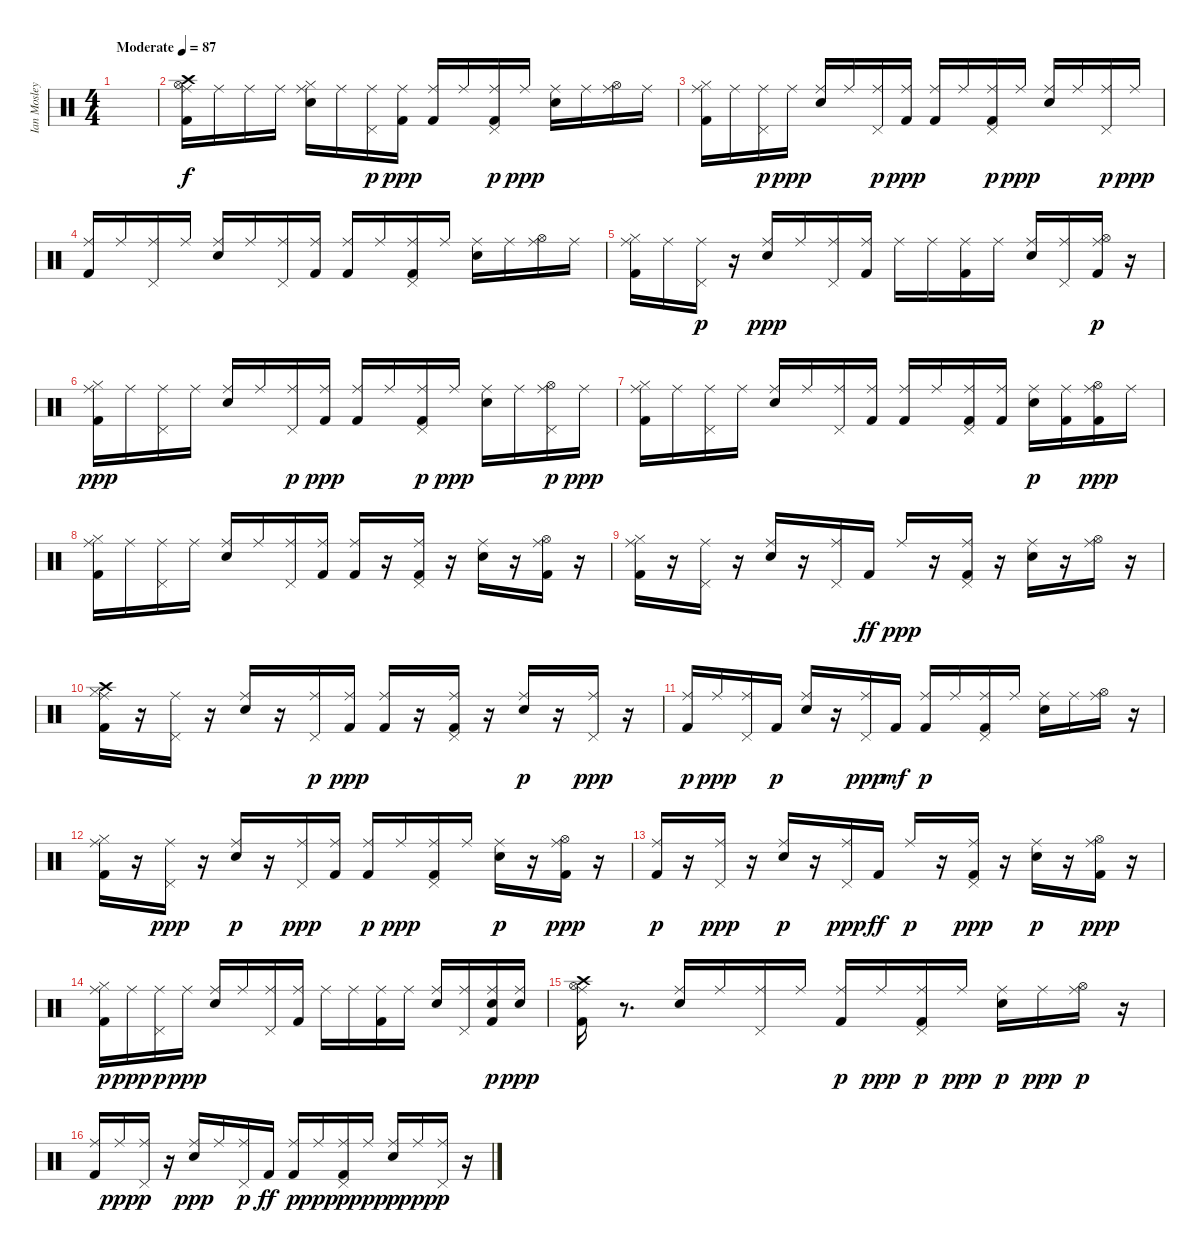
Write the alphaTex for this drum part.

\track ("Ian Mosley" "Ian Mosley") {instrument percussion}
\staff {score}
\articulation defaults
\ts (4 4)
\tempo (87 "Moderate")
\clef neutral
\ks c
|
("Kick (hit) 2" "Hi-Hat (open)" "Crash high (hit)" "Ride (middle)").16 "Ride (middle)".16 "Ride (middle)".16 "Ride (middle)".16 ("Snare (hit) 2" "Hi-Hat (closed)" "Ride (middle)").16 "Ride (middle)".16 ("Pedal Hi-Hat (hit)" "Ride (middle)").16{dy p} ("Kick (hit) 2" "Ride (middle)").16{dy ppp} ("Kick (hit) 2" "Ride (middle)").16 "Ride (middle)".16 ("Kick (hit) 2" "Pedal Hi-Hat (hit)" "Ride (middle)").16{dy p} "Ride (middle)".16{dy ppp} ("Snare (hit) 2" "Ride (middle)").16 "Ride (middle)".16 ("Hi-Hat (open)" "Ride (middle)").16 "Ride (middle)".16 |
("Kick (hit) 2" "Hi-Hat (closed)" "Ride (middle)").16 "Ride (middle)".16 ("Pedal Hi-Hat (hit)" "Ride (middle)").16{dy p} "Ride (middle)".16{dy ppp} ("Snare (hit) 2" "Ride (middle)").16 "Ride (middle)".16 ("Pedal Hi-Hat (hit)" "Ride (middle)").16{dy p} ("Kick (hit) 2" "Ride (middle)").16{dy ppp} ("Kick (hit) 2" "Ride (middle)").16 "Ride (middle)".16 ("Kick (hit) 2" "Pedal Hi-Hat (hit)" "Ride (middle)").16{dy p} "Ride (middle)".16{dy ppp} ("Snare (hit) 2" "Ride (middle)").16 "Ride (middle)".16 ("Pedal Hi-Hat (hit)" "Ride (middle)").16{dy p} "Ride (middle)".16{dy ppp} |
("Kick (hit) 2" "Ride (middle)").16 "Ride (middle)".16 ("Pedal Hi-Hat (hit)" "Ride (middle)").16 "Ride (middle)".16 ("Snare (hit) 2" "Ride (middle)").16 "Ride (middle)".16 ("Pedal Hi-Hat (hit)" "Ride (middle)").16 ("Kick (hit) 2" "Ride (middle)").16 ("Kick (hit) 2" "Ride (middle)").16 "Ride (middle)".16 ("Pedal Hi-Hat (hit)" "Kick (hit) 2" "Ride (middle)").16 "Ride (middle)".16 ("Snare (hit) 2" "Ride (middle)").16 "Ride (middle)".16 ("Hi-Hat (open)" "Ride (middle)").16 "Ride (middle)".16 |
("Hi-Hat (closed)" "Kick (hit) 2" "Ride (middle)").16 "Ride (middle)".16 ("Pedal Hi-Hat (hit)" "Ride (middle)").16{dy p} r.16 ("Snare (hit) 2" "Ride (middle)").16{dy ppp} "Ride (middle)".16 ("Pedal Hi-Hat (hit)" "Ride (middle)").16 ("Kick (hit) 2" "Ride (middle)").16 "Ride (middle)".16 "Ride (middle)".16 ("Kick (hit) 2" "Ride (middle)").16 "Ride (middle)".16 ("Snare (hit) 2" "Ride (middle)").16 ("Pedal Hi-Hat (hit)" "Ride (middle)").16 ("Hi-Hat (open)" "Kick (hit) 2" "Ride (middle)").16{dy p} r.16 |
("Kick (hit) 2" "Hi-Hat (closed)" "Ride (middle)").16{dy ppp} "Ride (middle)".16 ("Pedal Hi-Hat (hit)" "Ride (middle)").16 "Ride (middle)".16 ("Snare (hit) 2" "Ride (middle)").16 "Ride (middle)".16 ("Pedal Hi-Hat (hit)" "Ride (middle)").16{dy p} ("Kick (hit) 2" "Ride (middle)").16{dy ppp} ("Kick (hit) 2" "Ride (middle)").16 "Ride (middle)".16 ("Pedal Hi-Hat (hit)" "Kick (hit) 2" "Ride (middle)").16{dy p} "Ride (middle)".16{dy ppp} ("Snare (hit) 2" "Ride (middle)").16 "Ride (middle)".16 ("Pedal Hi-Hat (hit)" "Hi-Hat (open)" "Ride (middle)").16{dy p} "Ride (middle)".16{dy ppp} |
("Kick (hit) 2" "Hi-Hat (closed)" "Ride (middle)").16 "Ride (middle)".16 ("Pedal Hi-Hat (hit)" "Ride (middle)").16 "Ride (middle)".16 ("Snare (hit) 2" "Ride (middle)").16 "Ride (middle)".16 ("Pedal Hi-Hat (hit)" "Ride (middle)").16 ("Kick (hit) 2" "Ride (middle)").16 ("Kick (hit) 2" "Ride (middle)").16 "Ride (middle)".16 ("Kick (hit) 2" "Pedal Hi-Hat (hit)" "Ride (middle)").16 ("Kick (hit) 2" "Ride (middle)").16 ("Snare (hit) 2" "Ride (middle)").16{dy p} ("Kick (hit) 2" "Ride (middle)").16 ("Kick (hit) 2" "Hi-Hat (open)" "Ride (middle)").16{dy ppp} "Ride (middle)".16 |
("Kick (hit) 2" "Hi-Hat (closed)" "Ride (middle)").16 "Ride (middle)".16 ("Pedal Hi-Hat (hit)" "Ride (middle)").16 "Ride (middle)".16 ("Snare (hit) 2" "Ride (middle)").16 "Ride (middle)".16 ("Pedal Hi-Hat (hit)" "Ride (middle)").16 ("Kick (hit) 2" "Ride (middle)").16 ("Kick (hit) 2" "Ride (middle)").16 r.16 ("Kick (hit) 2" "Pedal Hi-Hat (hit)" "Ride (middle)").16 r.16 ("Snare (hit) 2" "Ride (middle)").16 r.16 ("Kick (hit) 2" "Hi-Hat (open)" "Ride (middle)").16 r.16 |
("Hi-Hat (closed)" "Kick (hit) 2" "Ride (middle)").16 r.16 ("Pedal Hi-Hat (hit)" "Ride (middle)").16 r.16 ("Snare (hit) 2" "Ride (middle)").16 r.16 ("Pedal Hi-Hat (hit)" "Ride (middle)").16 "Kick (hit) 2".16{dy ff} "Ride (middle)".16{dy ppp} r.16 ("Pedal Hi-Hat (hit)" "Kick (hit) 2" "Ride (middle)").16 r.16 ("Snare (hit) 2" "Ride (middle)").16 r.16 ("Hi-Hat (open)" "Ride (middle)").16 r.16 |
("Kick (hit) 2" "Hi-Hat (closed)" "Crash high (hit)" "Ride (middle)").16 r.16 ("Pedal Hi-Hat (hit)" "Ride (middle)").16 r.16 ("Snare (hit) 2" "Ride (middle)").16 r.16 ("Pedal Hi-Hat (hit)" "Ride (middle)").16{dy p} ("Kick (hit) 2" "Ride (middle)").16{dy ppp} ("Kick (hit) 2" "Ride (middle)").16 r.16 ("Pedal Hi-Hat (hit)" "Kick (hit) 2" "Ride (middle)").16 r.16 ("Snare (hit) 2" "Ride (middle)").16{dy p} r.16 ("Pedal Hi-Hat (hit)" "Ride (middle)").16{dy ppp} r.16 |
("Kick (hit) 2" "Ride (middle)").16{dy p} "Ride (middle)".16{dy ppp} ("Pedal Hi-Hat (hit)" "Ride (middle)").16 "Kick (hit) 2".16{dy p} ("Snare (hit) 2" "Ride (middle)").16 r.16 ("Pedal Hi-Hat (hit)" "Ride (middle)").16{dy ppp} "Kick (hit) 2".16{dy mf} ("Kick (hit) 2" "Ride (middle)").16{dy p} "Ride (middle)".16 ("Kick (hit) 2" "Pedal Hi-Hat (hit)" "Ride (middle)").16 "Ride (middle)".16 ("Snare (hit) 2" "Ride (middle)").16 "Ride (middle)".16 ("Hi-Hat (open)" "Ride (middle)").16 r.16 |
("Kick (hit) 2" "Hi-Hat (closed)" "Ride (middle)").16 r.16 ("Pedal Hi-Hat (hit)" "Ride (middle)").16{dy ppp} r.16 ("Snare (hit) 2" "Ride (middle)").16{dy p} r.16 ("Pedal Hi-Hat (hit)" "Ride (middle)").16{dy ppp} ("Kick (hit) 2" "Ride (middle)").16 ("Kick (hit) 2" "Ride (middle)").16{dy p} "Ride (middle)".16{dy ppp} ("Kick (hit) 2" "Pedal Hi-Hat (hit)" "Ride (middle)").16 "Ride (middle)".16 ("Snare (hit) 2" "Ride (middle)").16{dy p} r.16 ("Hi-Hat (open)" "Kick (hit) 2" "Ride (middle)").16{dy ppp} r.16 |
("Kick (hit) 2" "Ride (middle)").16{dy p} r.16 ("Pedal Hi-Hat (hit)" "Ride (middle)").16{dy ppp} r.16 ("Snare (hit) 2" "Ride (middle)").16{dy p} r.16 ("Pedal Hi-Hat (hit)" "Ride (middle)").16{dy ppp} "Kick (hit) 2".16{dy ff} "Ride (middle)".16{dy p} r.16 ("Kick (hit) 2" "Pedal Hi-Hat (hit)" "Ride (middle)").16{dy ppp} r.16 ("Snare (hit) 2" "Ride (middle)").16{dy p} r.16 ("Kick (hit) 2" "Hi-Hat (open)" "Ride (middle)").16{dy ppp} r.16 |
("Hi-Hat (closed)" "Kick (hit) 2" "Ride (middle)").16{dy p} "Ride (middle)".16{dy ppp} ("Pedal Hi-Hat (hit)" "Ride (middle)").16{dy p} "Ride (middle)".16{dy ppp} ("Snare (hit) 2" "Ride (middle)").16 "Ride (middle)".16 ("Pedal Hi-Hat (hit)" "Ride (middle)").16 ("Kick (hit) 2" "Ride (middle)").16 "Ride (middle)".16 "Ride (middle)".16 ("Kick (hit) 2" "Ride (middle)").16 "Ride (middle)".16 ("Snare (hit) 2" "Ride (middle)").16 ("Pedal Hi-Hat (hit)" "Ride (middle)").16 ("Kick (hit) 2" "Snare (hit) 2" "Ride (middle)").16{dy p} ("Snare (hit) 2" "Ride (middle)").16{dy ppp} |
("Kick (hit) 2" "Hi-Hat (open)" "Crash high (hit)" "Ride (middle)").16 r.8{d} ("Snare (hit) 2" "Ride (middle)").16 "Ride (middle)".16 ("Pedal Hi-Hat (hit)" "Ride (middle)").16 "Ride (middle)".16 ("Kick (hit) 2" "Ride (middle)").16{dy p} "Ride (middle)".16{dy ppp} ("Kick (hit) 2" "Pedal Hi-Hat (hit)" "Ride (middle)").16{dy p} "Ride (middle)".16{dy ppp} ("Snare (hit) 2" "Ride (middle)").16{dy p} "Ride (middle)".16{dy ppp} ("Hi-Hat (open)" "Ride (middle)").16{dy p} r.16 |
("Kick (hit) 2" "Ride (middle)").16 "Ride (middle)".16{dy ppp} ("Pedal Hi-Hat (hit)" "Ride (middle)").16{dy p} r.16 ("Snare (hit) 2" "Ride (middle)").16{dy ppp} "Ride (middle)".16 ("Pedal Hi-Hat (hit)" "Ride (middle)").16{dy p} "Kick (hit) 2".16{dy ff} ("Kick (hit) 2" "Ride (middle)").16{dy p} "Ride (middle)".16{dy ppp} ("Kick (hit) 2" "Pedal Hi-Hat (hit)" "Ride (middle)").16{dy p} "Ride (middle)".16{dy ppp} ("Snare (hit) 2" "Ride (middle)").16{dy p} "Ride (middle)".16{dy ppp} ("Pedal Hi-Hat (hit)" "Ride (middle)").16{dy p} r.16
